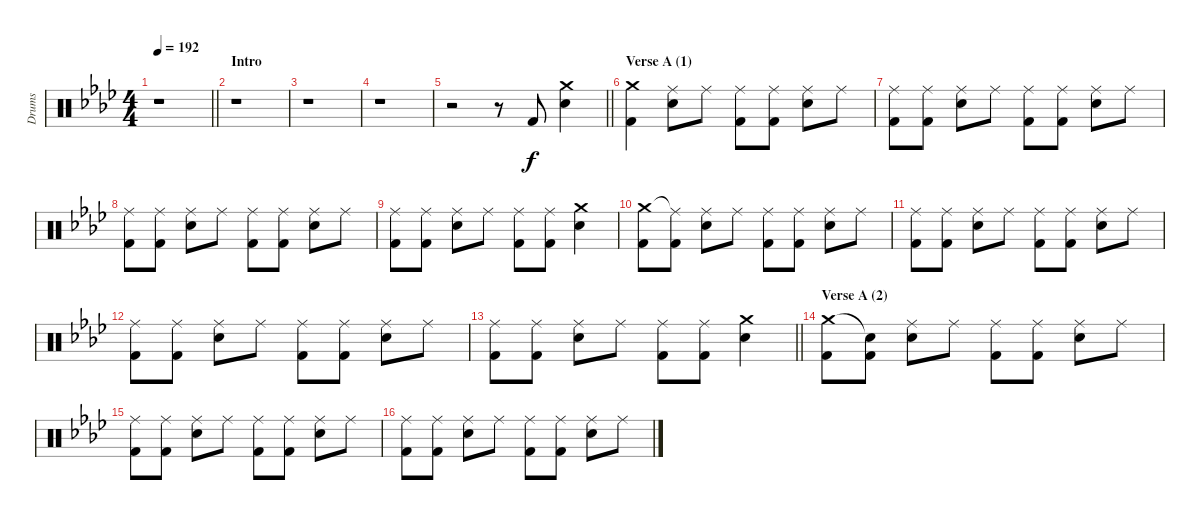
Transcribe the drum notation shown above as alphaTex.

\track ("Drums" "Drums") {instrument percussion}
\staff {score}
\articulation defaults
\ts (4 4)
\tempo 192
\clef neutral
\barLineRight lightlight
\ks ab
r.1{dy f} |
\section ("" "Intro")
r.1 |
r.1 |
r.1 |
\barLineRight lightlight
r.2 r.8 "Kick (hit) 2".8 ("Crash medium (hit)" "Electric Snare (hit)").4 |
\section ("" "Verse A (1)")
("Crash medium (hit)" "Kick (hit) 2").4 ("Ride (middle)" "Electric Snare (hit)").8 "Ride (middle)".8 ("Ride (middle)" "Kick (hit) 2").8 ("Ride (middle)" "Kick (hit) 2").8 ("Ride (middle)" "Electric Snare (hit)").8 "Ride (middle)".8 |
("Ride (middle)" "Kick (hit) 2").8 ("Ride (middle)" "Kick (hit) 2").8 ("Ride (middle)" "Electric Snare (hit)").8 "Ride (middle)".8 ("Ride (middle)" "Kick (hit) 2").8 ("Ride (middle)" "Kick (hit) 2").8 ("Ride (middle)" "Electric Snare (hit)").8 "Ride (middle)".8 |
("Ride (middle)" "Kick (hit) 2").8 ("Ride (middle)" "Kick (hit) 2").8 ("Ride (middle)" "Electric Snare (hit)").8 "Ride (middle)".8 ("Ride (middle)" "Kick (hit) 2").8 ("Ride (middle)" "Kick (hit) 2").8 ("Ride (middle)" "Electric Snare (hit)").8 "Ride (middle)".8 |
("Ride (middle)" "Kick (hit) 2").8 ("Ride (middle)" "Kick (hit) 2").8 ("Ride (middle)" "Electric Snare (hit)").8 "Ride (middle)".8 ("Ride (middle)" "Kick (hit) 2").8 ("Ride (middle)" "Kick (hit) 2").8 ("Crash medium (hit)" "Electric Snare (hit)").4 |
("Crash medium (hit)" "Kick (hit) 2").8 ("Ride (middle)"{t} "Kick (hit) 2").8 ("Ride (middle)" "Electric Snare (hit)").8 "Ride (middle)".8 ("Ride (middle)" "Kick (hit) 2").8 ("Ride (middle)" "Kick (hit) 2").8 ("Ride (middle)" "Electric Snare (hit)").8 "Ride (middle)".8 |
("Ride (middle)" "Kick (hit) 2").8 ("Ride (middle)" "Kick (hit) 2").8 ("Ride (middle)" "Electric Snare (hit)").8 "Ride (middle)".8 ("Ride (middle)" "Kick (hit) 2").8 ("Ride (middle)" "Kick (hit) 2").8 ("Ride (middle)" "Electric Snare (hit)").8 "Ride (middle)".8 |
("Ride (middle)" "Kick (hit) 2").8 ("Ride (middle)" "Kick (hit) 2").8 ("Ride (middle)" "Electric Snare (hit)").8 "Ride (middle)".8 ("Ride (middle)" "Kick (hit) 2").8 ("Ride (middle)" "Kick (hit) 2").8 ("Ride (middle)" "Electric Snare (hit)").8 "Ride (middle)".8 |
\barLineRight lightlight
("Ride (middle)" "Kick (hit) 2").8 ("Ride (middle)" "Kick (hit) 2").8 ("Ride (middle)" "Electric Snare (hit)").8 "Ride (middle)".8 ("Ride (middle)" "Kick (hit) 2").8 ("Ride (middle)" "Kick (hit) 2").8 ("Crash medium (hit)" "Electric Snare (hit)").4 |
\section ("" "Verse A (2)")
("Crash medium (hit)" "Kick (hit) 2").8 ("Snare (hit)"{t} "Kick (hit) 2").8 ("Ride (middle)" "Electric Snare (hit)").8 "Ride (middle)".8 ("Ride (middle)" "Kick (hit) 2").8 ("Ride (middle)" "Kick (hit) 2").8 ("Ride (middle)" "Electric Snare (hit)").8 "Ride (middle)".8 |
("Ride (middle)" "Kick (hit) 2").8 ("Ride (middle)" "Kick (hit) 2").8 ("Ride (middle)" "Electric Snare (hit)").8 "Ride (middle)".8 ("Ride (middle)" "Kick (hit) 2").8 ("Ride (middle)" "Kick (hit) 2").8 ("Ride (middle)" "Electric Snare (hit)").8 "Ride (middle)".8 |
("Ride (middle)" "Kick (hit) 2").8 ("Ride (middle)" "Kick (hit) 2").8 ("Ride (middle)" "Electric Snare (hit)").8 "Ride (middle)".8 ("Ride (middle)" "Kick (hit) 2").8 ("Ride (middle)" "Kick (hit) 2").8 ("Ride (middle)" "Electric Snare (hit)").8 "Ride (middle)".8
